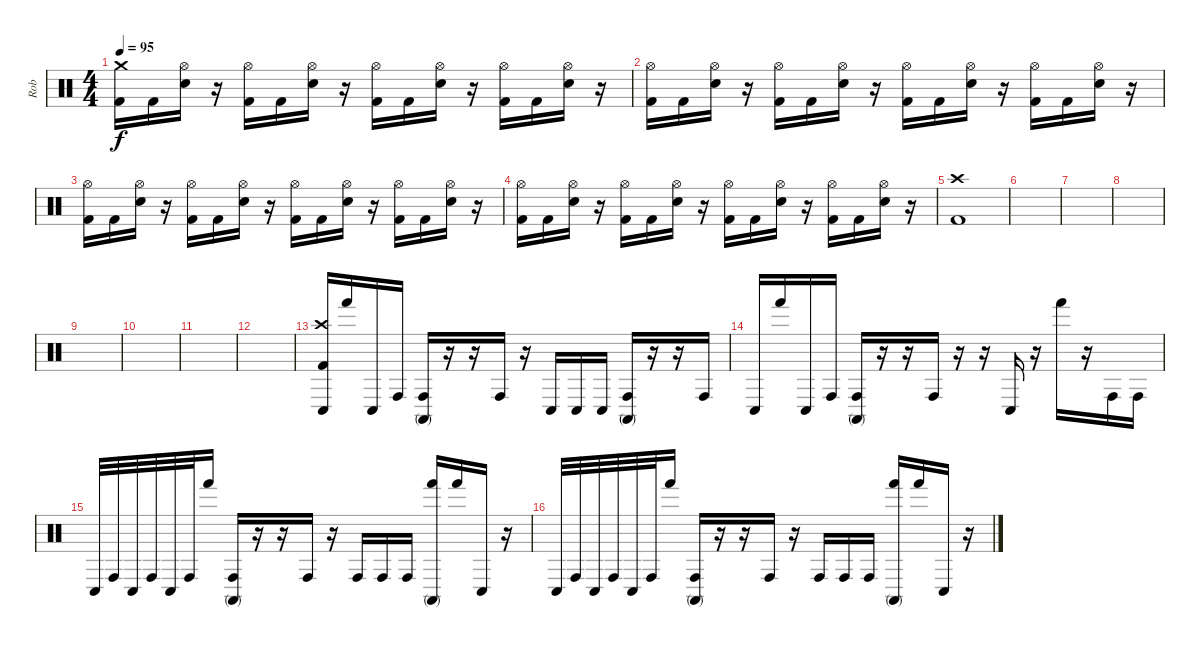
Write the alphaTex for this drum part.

\track ("Rob" "Rob") {instrument percussion}
\staff {score}
\articulation defaults
\ts (4 4)
\tempo 95
\clef neutral
\ks c
("Crash medium (hit)" "Kick (hit) 2").16{dy f} "Kick (hit) 2".16 ("Hi-Hat (open)" "Electric Snare (hit)").16 r.16 ("Hi-Hat (open)" "Kick (hit) 2").16 "Kick (hit) 2".16 ("Hi-Hat (open)" "Electric Snare (hit)").16 r.16 ("Hi-Hat (open)" "Kick (hit) 2").16 "Kick (hit) 2".16 ("Hi-Hat (open)" "Electric Snare (hit)").16 r.16 ("Hi-Hat (open)" "Kick (hit) 2").16 "Kick (hit) 2".16 ("Hi-Hat (open)" "Electric Snare (hit)").16 r.16 |
("Hi-Hat (open)" "Kick (hit) 2").16 "Kick (hit) 2".16 ("Hi-Hat (open)" "Electric Snare (hit)").16 r.16 ("Hi-Hat (open)" "Kick (hit) 2").16 "Kick (hit) 2".16 ("Hi-Hat (open)" "Electric Snare (hit)").16 r.16 ("Hi-Hat (open)" "Kick (hit) 2").16 "Kick (hit) 2".16 ("Hi-Hat (open)" "Electric Snare (hit)").16 r.16 ("Hi-Hat (open)" "Kick (hit) 2").16 "Kick (hit) 2".16 ("Hi-Hat (open)" "Electric Snare (hit)").16 r.16 |
("Hi-Hat (open)" "Kick (hit) 2").16 "Kick (hit) 2".16 ("Hi-Hat (open)" "Electric Snare (hit)").16 r.16 ("Hi-Hat (open)" "Kick (hit) 2").16 "Kick (hit) 2".16 ("Hi-Hat (open)" "Electric Snare (hit)").16 r.16 ("Hi-Hat (open)" "Kick (hit) 2").16 "Kick (hit) 2".16 ("Hi-Hat (open)" "Electric Snare (hit)").16 r.16 ("Hi-Hat (open)" "Kick (hit) 2").16 "Kick (hit) 2".16 ("Hi-Hat (open)" "Electric Snare (hit)").16 r.16 |
("Hi-Hat (open)" "Kick (hit) 2").16 "Kick (hit) 2".16 ("Hi-Hat (open)" "Electric Snare (hit)").16 r.16 ("Hi-Hat (open)" "Kick (hit) 2").16 "Kick (hit) 2".16 ("Hi-Hat (open)" "Electric Snare (hit)").16 r.16 ("Hi-Hat (open)" "Kick (hit) 2").16 "Kick (hit) 2".16 ("Hi-Hat (open)" "Electric Snare (hit)").16 r.16 ("Hi-Hat (open)" "Kick (hit) 2").16 "Kick (hit) 2".16 ("Hi-Hat (open)" "Electric Snare (hit)").16 r.16 |
("Crash high (hit)" "Kick (hit) 2").1 |
|
|
|
|
|
|
|
("Crash high (hit)" "Conga low (hit)" "Kick (hit) 2").16 "Hand (hit)".16 "Conga low (hit)".16 "Conga high (hit)".16 ("Conga high (hit)" "Conga high (mute)").16 r.16 r.16 "Conga high (hit)".16 r.16 "Conga low (hit)".16 "Conga low (hit)".16 "Conga low (hit)".16 ("Conga high (hit)" "Conga high (mute)").16 r.16 r.16 "Conga high (hit)".16 |
"Conga low (hit)".16 "Hand (hit)".16 "Conga low (hit)".16 "Conga high (hit)".16 ("Conga high (hit)" "Conga high (mute)").16 r.16 r.16 "Conga high (hit)".16 r.16 r.16 "Conga low (hit)".16 r.16 "Hand (hit)".16 r.16 "Conga high (hit)".16 "Conga high (hit)".16 |
"Conga low (hit)".32 "Conga high (hit)".32 "Conga low (hit)".32 "Conga high (hit)".32 "Conga low (hit)".32 "Conga high (hit)".32 "Hand (hit)".16 ("Conga high (hit)" "Conga high (mute)").16 r.16 r.16 "Conga high (hit)".16 r.16 "Conga high (hit)".16 "Conga high (hit)".16 "Conga high (hit)".16 ("Conga high (mute)" "Hand (hit)").16 "Hand (hit)".16 "Conga low (hit)".16 r.16 |
"Conga low (hit)".32 "Conga high (hit)".32 "Conga low (hit)".32 "Conga high (hit)".32 "Conga low (hit)".32 "Conga high (hit)".32 "Hand (hit)".16 ("Conga high (hit)" "Conga high (mute)").16 r.16 r.16 "Conga high (hit)".16 r.16 "Conga high (hit)".16 "Conga high (hit)".16 "Conga high (hit)".16 ("Conga high (mute)" "Hand (hit)").16 "Hand (hit)".16 "Conga low (hit)".16 r.16
